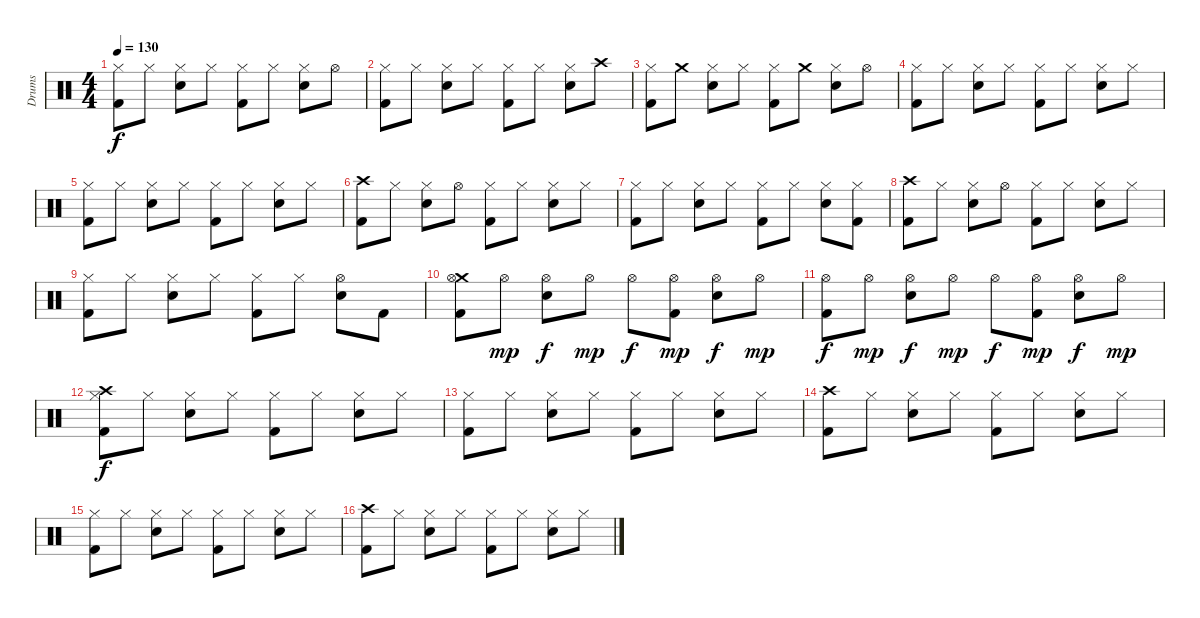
\track ("Drums" "Drums") {instrument percussion}
\staff {score}
\articulation defaults
\ts (4 4)
\tempo 130
\clef neutral
\ks c
("Hi-Hat (closed)" "Kick (hit) 2").8{dy f} "Hi-Hat (closed)".8 ("Hi-Hat (closed)" "Electric Snare (hit)").8 "Hi-Hat (closed)".8 ("Hi-Hat (closed)" "Kick (hit) 2").8 "Hi-Hat (closed)".8 ("Hi-Hat (closed)" "Electric Snare (hit)").8 "Hi-Hat (open)".8 |
("Hi-Hat (closed)" "Kick (hit) 2").8 "Hi-Hat (closed)".8 ("Hi-Hat (closed)" "Electric Snare (hit)").8 "Hi-Hat (closed)".8 ("Hi-Hat (closed)" "Kick (hit) 2").8 "Hi-Hat (closed)".8 ("Hi-Hat (closed)" "Electric Snare (hit)").8 "Crash high (hit)".8 |
("Hi-Hat (closed)" "Kick (hit) 2").8 "Crash medium (hit)".8 ("Hi-Hat (closed)" "Electric Snare (hit)").8 "Hi-Hat (closed)".8 ("Hi-Hat (closed)" "Kick (hit) 2").8 "Crash medium (hit)".8 ("Hi-Hat (closed)" "Electric Snare (hit)").8 "Hi-Hat (open)".8 |
("Hi-Hat (closed)" "Kick (hit) 2").8 "Hi-Hat (closed)".8 ("Hi-Hat (closed)" "Electric Snare (hit)").8 "Hi-Hat (closed)".8 ("Hi-Hat (closed)" "Kick (hit) 2").8 "Hi-Hat (closed)".8 ("Hi-Hat (closed)" "Electric Snare (hit)").8 "Hi-Hat (closed)".8 |
("Hi-Hat (closed)" "Kick (hit) 2").8 "Hi-Hat (closed)".8 ("Hi-Hat (closed)" "Electric Snare (hit)").8 "Hi-Hat (closed)".8 ("Hi-Hat (closed)" "Kick (hit) 2").8 "Hi-Hat (closed)".8 ("Hi-Hat (closed)" "Electric Snare (hit)").8 "Hi-Hat (closed)".8 |
("Crash high (hit)" "Kick (hit) 2").8 "Hi-Hat (closed)".8 ("Hi-Hat (closed)" "Electric Snare (hit)").8 "Hi-Hat (open)".8 ("Hi-Hat (closed)" "Kick (hit) 2").8 "Hi-Hat (closed)".8 ("Hi-Hat (closed)" "Electric Snare (hit)").8 "Hi-Hat (closed)".8 |
("Hi-Hat (closed)" "Kick (hit) 2").8 "Hi-Hat (closed)".8 ("Hi-Hat (closed)" "Electric Snare (hit)").8 "Hi-Hat (closed)".8 ("Hi-Hat (closed)" "Kick (hit) 2").8 "Hi-Hat (closed)".8 ("Hi-Hat (closed)" "Electric Snare (hit)").8 ("Hi-Hat (closed)" "Kick (hit) 2").8 |
("Crash high (hit)" "Kick (hit) 2").8 "Hi-Hat (closed)".8 ("Hi-Hat (closed)" "Electric Snare (hit)").8 "Hi-Hat (open)".8 ("Hi-Hat (closed)" "Kick (hit) 2").8 "Hi-Hat (closed)".8 ("Hi-Hat (closed)" "Electric Snare (hit)").8 "Hi-Hat (closed)".8 |
("Hi-Hat (closed)" "Kick (hit) 2").8 "Hi-Hat (closed)".8 ("Hi-Hat (closed)" "Electric Snare (hit)").8 "Hi-Hat (closed)".8 ("Hi-Hat (closed)" "Kick (hit) 2").8 "Hi-Hat (closed)".8 ("Hi-Hat (open)" "Electric Snare (hit)").8 "Kick (hit) 2".8 |
("Crash medium (hit)" "Hi-Hat (open)" "Kick (hit) 2").8 "Hi-Hat (open)".8{dy mp} ("Hi-Hat (open)" "Electric Snare (hit)").8{dy f} "Hi-Hat (open)".8{dy mp} "Hi-Hat (open)".8{dy f} ("Hi-Hat (open)" "Kick (hit) 2").8{dy mp} ("Hi-Hat (open)" "Electric Snare (hit)").8{dy f} "Hi-Hat (open)".8{dy mp} |
("Hi-Hat (open)" "Kick (hit) 2").8{dy f} "Hi-Hat (open)".8{dy mp} ("Hi-Hat (open)" "Electric Snare (hit)").8{dy f} "Hi-Hat (open)".8{dy mp} "Hi-Hat (open)".8{dy f} ("Hi-Hat (open)" "Kick (hit) 2").8{dy mp} ("Hi-Hat (open)" "Electric Snare (hit)").8{dy f} "Hi-Hat (open)".8{dy mp} |
("Crash high (hit)" "Hi-Hat (closed)" "Kick (hit) 2").8{dy f} "Hi-Hat (closed)".8 ("Hi-Hat (closed)" "Electric Snare (hit)").8 "Hi-Hat (closed)".8 ("Hi-Hat (closed)" "Kick (hit) 2").8 "Hi-Hat (closed)".8 ("Hi-Hat (closed)" "Electric Snare (hit)").8 "Hi-Hat (closed)".8 |
("Hi-Hat (closed)" "Kick (hit) 2").8 "Hi-Hat (closed)".8 ("Hi-Hat (closed)" "Electric Snare (hit)").8 "Hi-Hat (closed)".8 ("Hi-Hat (closed)" "Kick (hit) 2").8 "Hi-Hat (closed)".8 ("Hi-Hat (closed)" "Electric Snare (hit)").8 "Hi-Hat (closed)".8 |
("Crash high (hit)" "Kick (hit) 2").8 "Hi-Hat (closed)".8 ("Hi-Hat (closed)" "Electric Snare (hit)").8 "Hi-Hat (closed)".8 ("Hi-Hat (closed)" "Kick (hit) 2").8 "Hi-Hat (closed)".8 ("Hi-Hat (closed)" "Electric Snare (hit)").8 "Hi-Hat (closed)".8 |
("Hi-Hat (closed)" "Kick (hit) 2").8 "Hi-Hat (closed)".8 ("Hi-Hat (closed)" "Electric Snare (hit)").8 "Hi-Hat (closed)".8 ("Hi-Hat (closed)" "Kick (hit) 2").8 "Hi-Hat (closed)".8 ("Hi-Hat (closed)" "Electric Snare (hit)").8 "Hi-Hat (closed)".8 |
("Crash high (hit)" "Kick (hit) 2").8 "Hi-Hat (closed)".8 ("Hi-Hat (closed)" "Electric Snare (hit)").8 "Hi-Hat (closed)".8 ("Hi-Hat (closed)" "Kick (hit) 2").8 "Hi-Hat (closed)".8 ("Hi-Hat (closed)" "Electric Snare (hit)").8 "Hi-Hat (closed)".8
